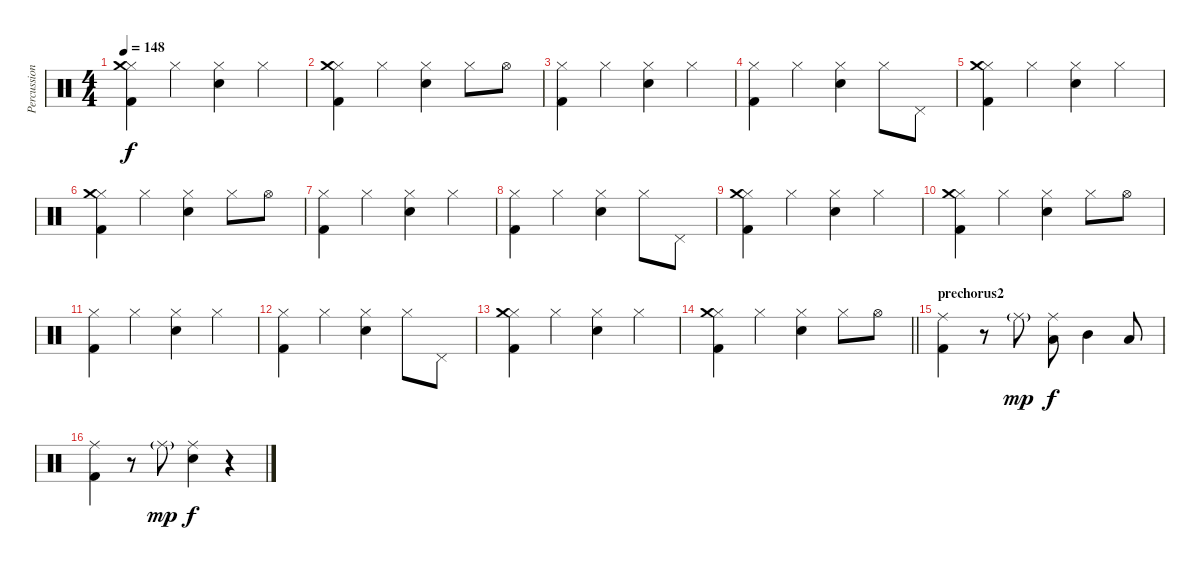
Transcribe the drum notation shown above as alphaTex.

\track ("Percussions" "Percussion") {instrument percussion}
\staff {score}
\articulation defaults
\ts (4 4)
\tempo 148
\clef neutral
\ks c
("Hi-Hat (closed)" "Kick (hit) 2" "Crash medium (hit)").4{dy f} "Hi-Hat (closed)".4 ("Hi-Hat (closed)" "Snare (hit) 2").4 "Hi-Hat (closed)".4 |
("Hi-Hat (closed)" "Kick (hit) 2" "Crash medium (hit)").4 "Hi-Hat (closed)".4 ("Hi-Hat (closed)" "Snare (hit) 2").4 "Hi-Hat (closed)".8 "Hi-Hat (open)".8 |
("Hi-Hat (closed)" "Kick (hit) 2").4 "Hi-Hat (closed)".4 ("Hi-Hat (closed)" "Snare (hit) 2").4 "Hi-Hat (closed)".4 |
("Hi-Hat (closed)" "Kick (hit) 2").4 "Hi-Hat (closed)".4 ("Hi-Hat (closed)" "Snare (hit) 2").4 "Hi-Hat (closed)".8 "Pedal Hi-Hat (hit)".8 |
("Hi-Hat (closed)" "Kick (hit) 2" "Crash medium (hit)").4 "Hi-Hat (closed)".4 ("Hi-Hat (closed)" "Snare (hit) 2").4 "Hi-Hat (closed)".4 |
("Hi-Hat (closed)" "Kick (hit) 2" "Crash medium (hit)").4 "Hi-Hat (closed)".4 ("Hi-Hat (closed)" "Snare (hit) 2").4 "Hi-Hat (closed)".8 "Hi-Hat (open)".8 |
("Hi-Hat (closed)" "Kick (hit) 2").4 "Hi-Hat (closed)".4 ("Hi-Hat (closed)" "Snare (hit) 2").4 "Hi-Hat (closed)".4 |
("Hi-Hat (closed)" "Kick (hit) 2").4 "Hi-Hat (closed)".4 ("Hi-Hat (closed)" "Snare (hit) 2").4 "Hi-Hat (closed)".8 "Pedal Hi-Hat (hit)".8 |
("Hi-Hat (closed)" "Kick (hit) 2" "Crash medium (hit)").4 "Hi-Hat (closed)".4 ("Hi-Hat (closed)" "Snare (hit) 2").4 "Hi-Hat (closed)".4 |
("Hi-Hat (closed)" "Kick (hit) 2" "Crash medium (hit)").4 "Hi-Hat (closed)".4 ("Hi-Hat (closed)" "Snare (hit) 2").4 "Hi-Hat (closed)".8 "Hi-Hat (open)".8 |
("Hi-Hat (closed)" "Kick (hit) 2").4 "Hi-Hat (closed)".4 ("Hi-Hat (closed)" "Snare (hit) 2").4 "Hi-Hat (closed)".4 |
("Hi-Hat (closed)" "Kick (hit) 2").4 "Hi-Hat (closed)".4 ("Hi-Hat (closed)" "Snare (hit) 2").4 "Hi-Hat (closed)".8 "Pedal Hi-Hat (hit)".8 |
("Hi-Hat (closed)" "Kick (hit) 2" "Crash medium (hit)").4 "Hi-Hat (closed)".4 ("Hi-Hat (closed)" "Snare (hit) 2").4 "Hi-Hat (closed)".4 |
\barLineRight lightlight
("Hi-Hat (closed)" "Kick (hit) 2" "Crash medium (hit)").4 "Hi-Hat (closed)".4 ("Hi-Hat (closed)" "Snare (hit) 2").4 "Hi-Hat (closed)".8 "Hi-Hat (open)".8 |
\section ("" "prechorus2")
("Ride (middle)" "Kick (hit) 2").4 r.8 "Ride (middle)"{g}.8{dy mp} ("Ride (middle)" "Low Tom (hit)").8{dy f} "Mid Tom (hit)".4 "Low Tom (hit)".8 |
("Ride (middle)" "Kick (hit) 2").4 r.8 "Ride (middle)"{g}.8{dy mp} ("Ride (middle)" "Snare (hit) 2").4{dy f} r.4
